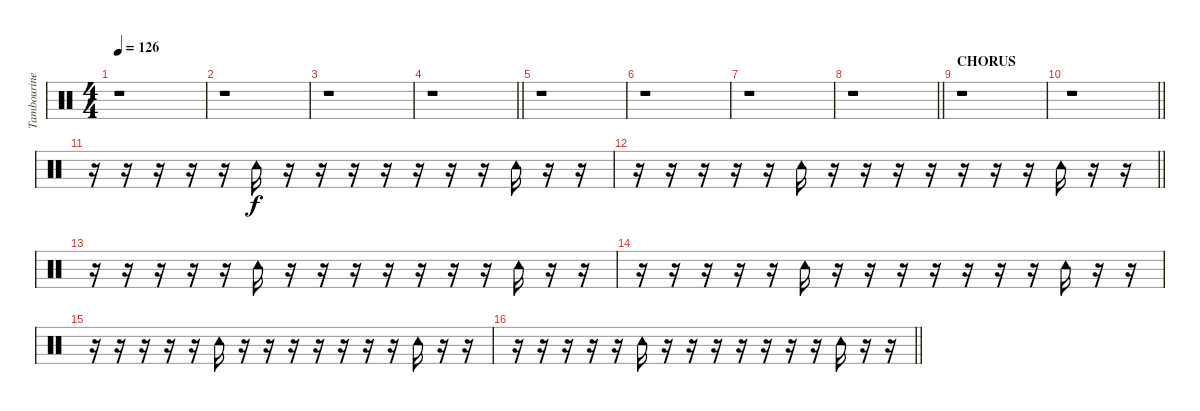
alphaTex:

\track ("Tambourine" "Tambourine") {instrument percussion}
\staff {score}
\articulation defaults
\ts (4 4)
\tempo 126
\clef neutral
\ks c
r.1{dy f} |
r.1 |
r.1 |
\barLineRight lightlight
r.1 |
r.1 |
r.1 |
r.1 |
\barLineRight lightlight
r.1 |
\section ("" "CHORUS")
r.1 |
\barLineRight lightlight
r.1 |
r.16 r.16 r.16 r.16 r.16 "Tambourine (hit)".16 r.16 r.16 r.16 r.16 r.16 r.16 r.16 "Tambourine (hit)".16 r.16 r.16 |
\barLineRight lightlight
r.16 r.16 r.16 r.16 r.16 "Tambourine (hit)".16 r.16 r.16 r.16 r.16 r.16 r.16 r.16 "Tambourine (hit)".16 r.16 r.16 |
r.16 r.16 r.16 r.16 r.16 "Tambourine (hit)".16 r.16 r.16 r.16 r.16 r.16 r.16 r.16 "Tambourine (hit)".16 r.16 r.16 |
r.16 r.16 r.16 r.16 r.16 "Tambourine (hit)".16 r.16 r.16 r.16 r.16 r.16 r.16 r.16 "Tambourine (hit)".16 r.16 r.16 |
r.16 r.16 r.16 r.16 r.16 "Tambourine (hit)".16 r.16 r.16 r.16 r.16 r.16 r.16 r.16 "Tambourine (hit)".16 r.16 r.16 |
\barLineRight lightlight
r.16 r.16 r.16 r.16 r.16 "Tambourine (hit)".16 r.16 r.16 r.16 r.16 r.16 r.16 r.16 "Tambourine (hit)".16 r.16 r.16
